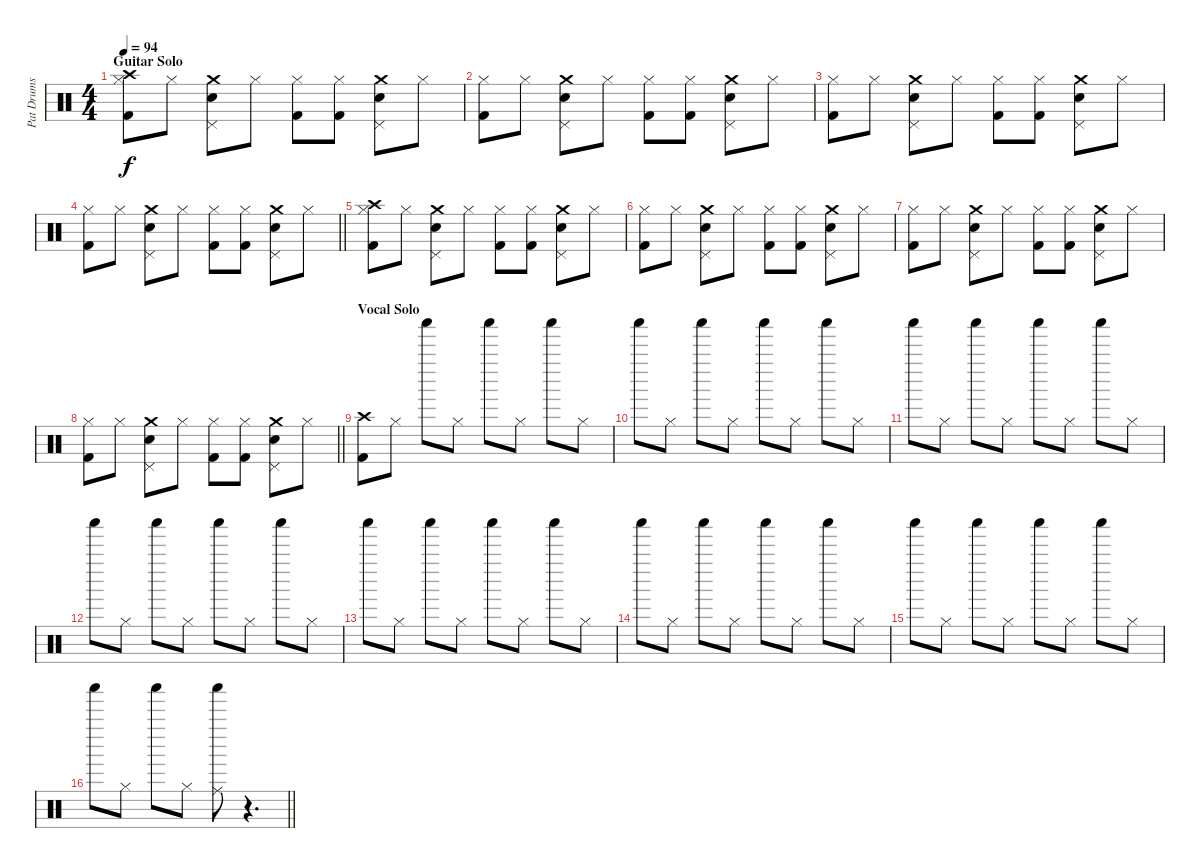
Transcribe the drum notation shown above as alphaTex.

\track ("Pat Drums" "Pat Drums") {instrument percussion}
\staff {score}
\articulation defaults
\ts (4 4)
\section ("" "Guitar Solo")
\tempo 94
\clef neutral
\ks c
("Hi-Hat (closed)" "Kick (hit) 2" "Crash high (hit)").8{dy f} "Hi-Hat (closed)".8 ("Electric Snare (hit)" "Pedal Hi-Hat (hit)" "Crash medium (hit)").8 "Hi-Hat (closed)".8 ("Hi-Hat (closed)" "Kick (hit) 2").8 ("Hi-Hat (closed)" "Kick (hit) 2").8 ("Electric Snare (hit)" "Pedal Hi-Hat (hit)" "Crash medium (hit)").8 "Hi-Hat (closed)".8 |
("Hi-Hat (closed)" "Kick (hit) 2").8 "Hi-Hat (closed)".8 ("Electric Snare (hit)" "Pedal Hi-Hat (hit)" "Crash medium (hit)").8 "Hi-Hat (closed)".8 ("Hi-Hat (closed)" "Kick (hit) 2").8 ("Hi-Hat (closed)" "Kick (hit) 2").8 ("Electric Snare (hit)" "Pedal Hi-Hat (hit)" "Crash medium (hit)").8 "Hi-Hat (closed)".8 |
("Hi-Hat (closed)" "Kick (hit) 2").8 "Hi-Hat (closed)".8 ("Electric Snare (hit)" "Pedal Hi-Hat (hit)" "Crash medium (hit)").8 "Hi-Hat (closed)".8 ("Hi-Hat (closed)" "Kick (hit) 2").8 ("Hi-Hat (closed)" "Kick (hit) 2").8 ("Electric Snare (hit)" "Pedal Hi-Hat (hit)" "Crash medium (hit)").8 "Hi-Hat (closed)".8 |
\barLineRight lightlight
("Hi-Hat (closed)" "Kick (hit) 2").8 "Hi-Hat (closed)".8 ("Electric Snare (hit)" "Pedal Hi-Hat (hit)" "Crash medium (hit)").8 "Hi-Hat (closed)".8 ("Hi-Hat (closed)" "Kick (hit) 2").8 ("Hi-Hat (closed)" "Kick (hit) 2").8 ("Electric Snare (hit)" "Pedal Hi-Hat (hit)" "Crash medium (hit)").8 "Hi-Hat (closed)".8 |
("Hi-Hat (closed)" "Kick (hit) 2" "Crash high (hit)").8 "Hi-Hat (closed)".8 ("Electric Snare (hit)" "Pedal Hi-Hat (hit)" "Crash medium (hit)").8 "Hi-Hat (closed)".8 ("Hi-Hat (closed)" "Kick (hit) 2").8 ("Hi-Hat (closed)" "Kick (hit) 2").8 ("Electric Snare (hit)" "Pedal Hi-Hat (hit)" "Crash medium (hit)").8 "Hi-Hat (closed)".8 |
("Hi-Hat (closed)" "Kick (hit) 2").8 "Hi-Hat (closed)".8 ("Electric Snare (hit)" "Pedal Hi-Hat (hit)" "Crash medium (hit)").8 "Hi-Hat (closed)".8 ("Hi-Hat (closed)" "Kick (hit) 2").8 ("Hi-Hat (closed)" "Kick (hit) 2").8 ("Electric Snare (hit)" "Pedal Hi-Hat (hit)" "Crash medium (hit)").8 "Hi-Hat (closed)".8 |
("Hi-Hat (closed)" "Kick (hit) 2").8 "Hi-Hat (closed)".8 ("Electric Snare (hit)" "Pedal Hi-Hat (hit)" "Crash medium (hit)").8 "Hi-Hat (closed)".8 ("Hi-Hat (closed)" "Kick (hit) 2").8 ("Hi-Hat (closed)" "Kick (hit) 2").8 ("Electric Snare (hit)" "Pedal Hi-Hat (hit)" "Crash medium (hit)").8 "Hi-Hat (closed)".8 |
\barLineRight lightlight
("Hi-Hat (closed)" "Kick (hit) 2").8 "Hi-Hat (closed)".8 ("Electric Snare (hit)" "Pedal Hi-Hat (hit)" "Crash medium (hit)").8 "Hi-Hat (closed)".8 ("Hi-Hat (closed)" "Kick (hit) 2").8 ("Hi-Hat (closed)" "Kick (hit) 2").8 ("Electric Snare (hit)" "Pedal Hi-Hat (hit)" "Crash medium (hit)").8 "Hi-Hat (closed)".8 |
\section ("" "Vocal Solo")
("Crash high (hit)" "Kick (hit) 2").8 "Hi-Hat (closed)".8 "Shaker (hit)".8 "Hi-Hat (closed)".8 "Shaker (hit)".8 "Hi-Hat (closed)".8 "Shaker (hit)".8 "Hi-Hat (closed)".8 |
"Shaker (hit)".8 "Hi-Hat (closed)".8 "Shaker (hit)".8 "Hi-Hat (closed)".8 "Shaker (hit)".8 "Hi-Hat (closed)".8 "Shaker (hit)".8 "Hi-Hat (closed)".8 |
"Shaker (hit)".8 "Hi-Hat (closed)".8 "Shaker (hit)".8 "Hi-Hat (closed)".8 "Shaker (hit)".8 "Hi-Hat (closed)".8 "Shaker (hit)".8 "Hi-Hat (closed)".8 |
"Shaker (hit)".8 "Hi-Hat (closed)".8 "Shaker (hit)".8 "Hi-Hat (closed)".8 "Shaker (hit)".8 "Hi-Hat (closed)".8 "Shaker (hit)".8 "Hi-Hat (closed)".8 |
"Shaker (hit)".8 "Hi-Hat (closed)".8 "Shaker (hit)".8 "Hi-Hat (closed)".8 "Shaker (hit)".8 "Hi-Hat (closed)".8 "Shaker (hit)".8 "Hi-Hat (closed)".8 |
"Shaker (hit)".8 "Hi-Hat (closed)".8 "Shaker (hit)".8 "Hi-Hat (closed)".8 "Shaker (hit)".8 "Hi-Hat (closed)".8 "Shaker (hit)".8 "Hi-Hat (closed)".8 |
"Shaker (hit)".8 "Hi-Hat (closed)".8 "Shaker (hit)".8 "Hi-Hat (closed)".8 "Shaker (hit)".8 "Hi-Hat (closed)".8 "Shaker (hit)".8 "Hi-Hat (closed)".8 |
\barLineRight lightlight "Shaker (hit)".8 "Hi-Hat (closed)".8 "Shaker (hit)".8 "Hi-Hat (closed)".8
("Shaker (hit)" "Ride (middle)").8 r.4{d}
